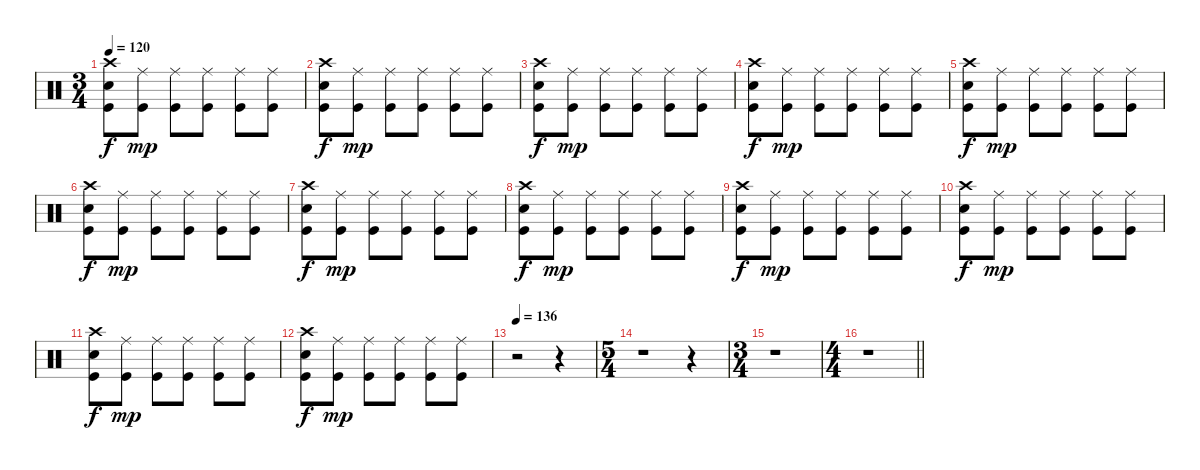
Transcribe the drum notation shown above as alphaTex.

\track "" {instrument percussion}
\staff {score}
\articulation defaults
\ts (3 4)
\tempo 120
\clef neutral
\ks c
("Kick (hit)" "Electric Snare (hit)" "Crash high (hit)").8{dy f} ("Kick (hit)" "Ride (middle)").8{dy mp} ("Kick (hit)" "Ride (middle)").8 ("Kick (hit)" "Ride (middle)").8 ("Kick (hit)" "Ride (middle)").8 ("Kick (hit)" "Ride (middle)").8 |
("Kick (hit)" "Electric Snare (hit)" "Crash high (hit)").8{dy f} ("Kick (hit)" "Ride (middle)").8{dy mp} ("Kick (hit)" "Ride (middle)").8 ("Kick (hit)" "Ride (middle)").8 ("Kick (hit)" "Ride (middle)").8 ("Kick (hit)" "Ride (middle)").8 |
("Kick (hit)" "Electric Snare (hit)" "Crash high (hit)").8{dy f} ("Kick (hit)" "Ride (middle)").8{dy mp} ("Kick (hit)" "Ride (middle)").8 ("Kick (hit)" "Ride (middle)").8 ("Kick (hit)" "Ride (middle)").8 ("Kick (hit)" "Ride (middle)").8 |
("Kick (hit)" "Electric Snare (hit)" "Crash high (hit)").8{dy f} ("Kick (hit)" "Ride (middle)").8{dy mp} ("Kick (hit)" "Ride (middle)").8 ("Kick (hit)" "Ride (middle)").8 ("Kick (hit)" "Ride (middle)").8 ("Kick (hit)" "Ride (middle)").8 |
("Kick (hit)" "Electric Snare (hit)" "Crash high (hit)").8{dy f} ("Kick (hit)" "Ride (middle)").8{dy mp} ("Kick (hit)" "Ride (middle)").8 ("Kick (hit)" "Ride (middle)").8 ("Kick (hit)" "Ride (middle)").8 ("Kick (hit)" "Ride (middle)").8 |
("Kick (hit)" "Electric Snare (hit)" "Crash high (hit)").8{dy f volume 0} ("Kick (hit)" "Ride (middle)").8{dy mp} ("Kick (hit)" "Ride (middle)").8 ("Kick (hit)" "Ride (middle)").8 ("Kick (hit)" "Ride (middle)").8 ("Kick (hit)" "Ride (middle)").8 |
("Kick (hit)" "Electric Snare (hit)" "Crash high (hit)").8{dy f} ("Kick (hit)" "Ride (middle)").8{dy mp} ("Kick (hit)" "Ride (middle)").8 ("Kick (hit)" "Ride (middle)").8 ("Kick (hit)" "Ride (middle)").8 ("Kick (hit)" "Ride (middle)").8 |
("Kick (hit)" "Electric Snare (hit)" "Crash high (hit)").8{dy f} ("Kick (hit)" "Ride (middle)").8{dy mp} ("Kick (hit)" "Ride (middle)").8 ("Kick (hit)" "Ride (middle)").8 ("Kick (hit)" "Ride (middle)").8 ("Kick (hit)" "Ride (middle)").8 |
("Kick (hit)" "Electric Snare (hit)" "Crash high (hit)").8{dy f} ("Kick (hit)" "Ride (middle)").8{dy mp} ("Kick (hit)" "Ride (middle)").8 ("Kick (hit)" "Ride (middle)").8 ("Kick (hit)" "Ride (middle)").8 ("Kick (hit)" "Ride (middle)").8 |
("Kick (hit)" "Electric Snare (hit)" "Crash high (hit)").8{dy f} ("Kick (hit)" "Ride (middle)").8{dy mp} ("Kick (hit)" "Ride (middle)").8 ("Kick (hit)" "Ride (middle)").8 ("Kick (hit)" "Ride (middle)").8 ("Kick (hit)" "Ride (middle)").8 |
("Kick (hit)" "Electric Snare (hit)" "Crash high (hit)").8{dy f} ("Kick (hit)" "Ride (middle)").8{dy mp} ("Kick (hit)" "Ride (middle)").8 ("Kick (hit)" "Ride (middle)").8 ("Kick (hit)" "Ride (middle)").8 ("Kick (hit)" "Ride (middle)").8 |
("Kick (hit)" "Electric Snare (hit)" "Crash high (hit)").8{dy f} ("Kick (hit)" "Ride (middle)").8{dy mp} ("Kick (hit)" "Ride (middle)").8 ("Kick (hit)" "Ride (middle)").8 ("Kick (hit)" "Ride (middle)").8 ("Kick (hit)" "Ride (middle)").8 |
\tempo 136
r.2 r.4 |
\ts (5 4)
r.1 r.4 |
\ts (3 4)
r.1{volume 12} |
\ts (4 4)
\barLineRight lightlight
r.1
